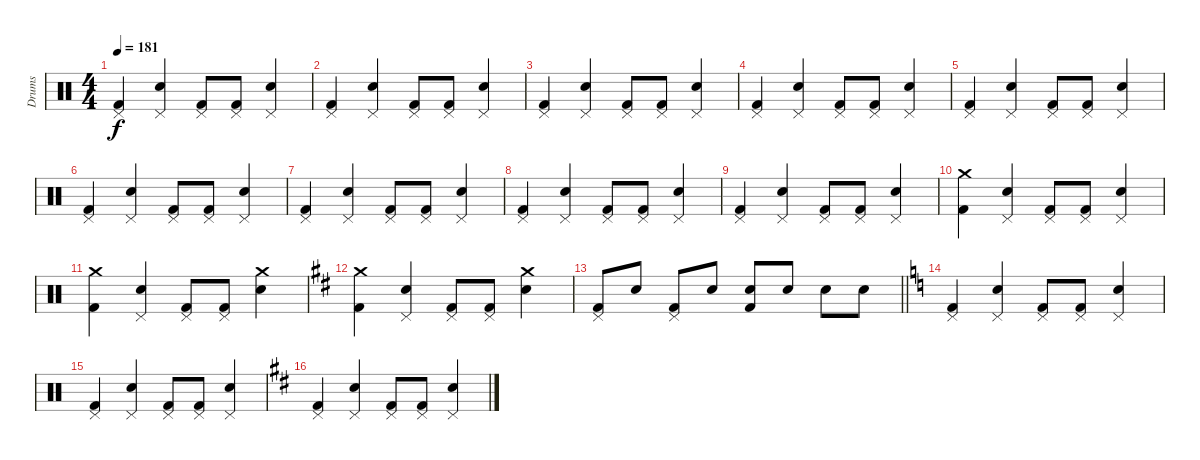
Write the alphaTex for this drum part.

\track ("Drums" "Drums") {instrument percussion}
\staff {score}
\articulation defaults
\ts (4 4)
\tempo 181
\clef neutral
\ks c
("Pedal Hi-Hat (hit)" "Kick (hit) 2").4{dy f} ("Pedal Hi-Hat (hit)" "Snare (hit) 2").4 ("Pedal Hi-Hat (hit)" "Kick (hit) 2").8 ("Pedal Hi-Hat (hit)" "Kick (hit) 2").8 ("Pedal Hi-Hat (hit)" "Snare (hit) 2").4 |
("Pedal Hi-Hat (hit)" "Kick (hit) 2").4 ("Pedal Hi-Hat (hit)" "Snare (hit) 2").4 ("Pedal Hi-Hat (hit)" "Kick (hit) 2").8 ("Pedal Hi-Hat (hit)" "Kick (hit) 2").8 ("Pedal Hi-Hat (hit)" "Snare (hit) 2").4 |
("Pedal Hi-Hat (hit)" "Kick (hit) 2").4 ("Pedal Hi-Hat (hit)" "Snare (hit) 2").4 ("Pedal Hi-Hat (hit)" "Kick (hit) 2").8 ("Pedal Hi-Hat (hit)" "Kick (hit) 2").8 ("Pedal Hi-Hat (hit)" "Snare (hit) 2").4 |
("Pedal Hi-Hat (hit)" "Kick (hit) 2").4 ("Pedal Hi-Hat (hit)" "Snare (hit) 2").4 ("Pedal Hi-Hat (hit)" "Kick (hit) 2").8 ("Pedal Hi-Hat (hit)" "Kick (hit) 2").8 ("Pedal Hi-Hat (hit)" "Snare (hit) 2").4 |
("Pedal Hi-Hat (hit)" "Kick (hit) 2").4 ("Pedal Hi-Hat (hit)" "Snare (hit) 2").4 ("Pedal Hi-Hat (hit)" "Kick (hit) 2").8 ("Pedal Hi-Hat (hit)" "Kick (hit) 2").8 ("Pedal Hi-Hat (hit)" "Snare (hit) 2").4 |
("Pedal Hi-Hat (hit)" "Kick (hit) 2").4 ("Pedal Hi-Hat (hit)" "Snare (hit) 2").4 ("Pedal Hi-Hat (hit)" "Kick (hit) 2").8 ("Pedal Hi-Hat (hit)" "Kick (hit) 2").8 ("Pedal Hi-Hat (hit)" "Snare (hit) 2").4 |
("Pedal Hi-Hat (hit)" "Kick (hit) 2").4 ("Pedal Hi-Hat (hit)" "Snare (hit) 2").4 ("Pedal Hi-Hat (hit)" "Kick (hit) 2").8 ("Pedal Hi-Hat (hit)" "Kick (hit) 2").8 ("Pedal Hi-Hat (hit)" "Snare (hit) 2").4 |
("Pedal Hi-Hat (hit)" "Kick (hit) 2").4 ("Pedal Hi-Hat (hit)" "Snare (hit) 2").4 ("Pedal Hi-Hat (hit)" "Kick (hit) 2").8 ("Pedal Hi-Hat (hit)" "Kick (hit) 2").8 ("Pedal Hi-Hat (hit)" "Snare (hit) 2").4 |
("Pedal Hi-Hat (hit)" "Kick (hit) 2").4 ("Pedal Hi-Hat (hit)" "Snare (hit) 2").4 ("Pedal Hi-Hat (hit)" "Kick (hit) 2").8 ("Pedal Hi-Hat (hit)" "Kick (hit) 2").8 ("Pedal Hi-Hat (hit)" "Snare (hit) 2").4 |
("Crash medium (hit)" "Kick (hit) 2").4 ("Pedal Hi-Hat (hit)" "Snare (hit) 2").4 ("Pedal Hi-Hat (hit)" "Kick (hit) 2").8 ("Pedal Hi-Hat (hit)" "Kick (hit) 2").8 ("Pedal Hi-Hat (hit)" "Snare (hit) 2").4 |
("Crash medium (hit)" "Kick (hit) 2").4 ("Pedal Hi-Hat (hit)" "Snare (hit) 2").4 ("Pedal Hi-Hat (hit)" "Kick (hit) 2").8 ("Pedal Hi-Hat (hit)" "Kick (hit) 2").8 ("Crash medium (hit)" "Snare (hit) 2").4 |
\ks d
("Crash medium (hit)" "Kick (hit) 2").4 ("Pedal Hi-Hat (hit)" "Snare (hit) 2").4 ("Pedal Hi-Hat (hit)" "Kick (hit) 2").8 ("Pedal Hi-Hat (hit)" "Kick (hit) 2").8 ("Crash medium (hit)" "Snare (hit) 2").4 |
\barLineRight lightlight
("Pedal Hi-Hat (hit)" "Kick (hit) 2").8 "Snare (hit) 2".8 ("Pedal Hi-Hat (hit)" "Kick (hit) 2").8 "Snare (hit) 2".8 ("Snare (hit) 2" "Kick (hit) 2").8 "Snare (hit) 2".8 "Snare (hit) 2".8 "Snare (hit) 2".8 |
\ks c
("Pedal Hi-Hat (hit)" "Kick (hit) 2").4 ("Pedal Hi-Hat (hit)" "Snare (hit) 2").4 ("Pedal Hi-Hat (hit)" "Kick (hit) 2").8 ("Pedal Hi-Hat (hit)" "Kick (hit) 2").8 ("Pedal Hi-Hat (hit)" "Snare (hit) 2").4 |
("Pedal Hi-Hat (hit)" "Kick (hit) 2").4 ("Pedal Hi-Hat (hit)" "Snare (hit) 2").4 ("Pedal Hi-Hat (hit)" "Kick (hit) 2").8 ("Pedal Hi-Hat (hit)" "Kick (hit) 2").8 ("Pedal Hi-Hat (hit)" "Snare (hit) 2").4 |
\ks d
("Pedal Hi-Hat (hit)" "Kick (hit) 2").4 ("Pedal Hi-Hat (hit)" "Snare (hit) 2").4 ("Pedal Hi-Hat (hit)" "Kick (hit) 2").8 ("Pedal Hi-Hat (hit)" "Kick (hit) 2").8 ("Pedal Hi-Hat (hit)" "Snare (hit) 2").4
